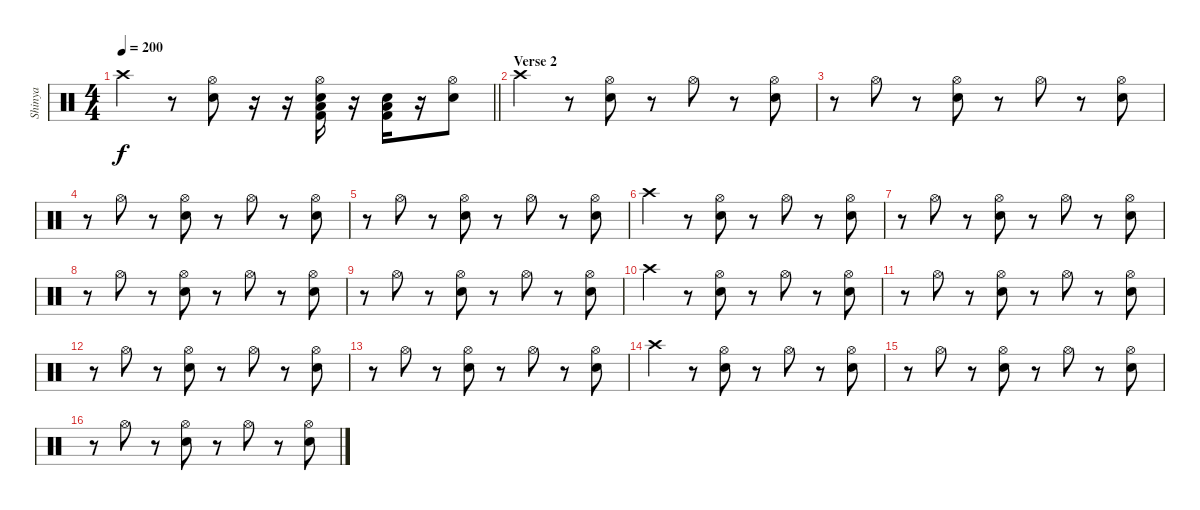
\track ("Shinya" "Shinya") {instrument percussion}
\staff {score}
\articulation defaults
\ts (4 4)
\tempo 200
\clef neutral
\barLineRight lightlight
\ks c "Crash high (hit)".4{dy f}
r.8 ("Hi-Hat (open)" "Electric Snare (hit)").8 r.16 r.16 ("Hi-Hat (open)" "Kick (hit) 2" "Electric Snare (hit)" "Low Tom (hit)").16 r.16 ("Kick (hit) 2" "Electric Snare (hit)" "Low Tom (hit)").16 r.16 ("Hi-Hat (open)" "Electric Snare (hit)").8 |
\section ("" "Verse 2")
"Crash high (hit)".4 r.8 ("Hi-Hat (open)" "Electric Snare (hit)").8 r.8 "Hi-Hat (open)".8 r.8 ("Hi-Hat (open)" "Electric Snare (hit)").8 |
r.8 "Hi-Hat (open)".8 r.8 ("Hi-Hat (open)" "Electric Snare (hit)").8 r.8 "Hi-Hat (open)".8 r.8 ("Hi-Hat (open)" "Electric Snare (hit)").8 |
r.8 "Hi-Hat (open)".8 r.8 ("Hi-Hat (open)" "Electric Snare (hit)").8 r.8 "Hi-Hat (open)".8 r.8 ("Hi-Hat (open)" "Electric Snare (hit)").8 |
r.8 "Hi-Hat (open)".8 r.8 ("Hi-Hat (open)" "Electric Snare (hit)").8 r.8 "Hi-Hat (open)".8 r.8 ("Hi-Hat (open)" "Electric Snare (hit)").8 |
"Crash high (hit)".4 r.8 ("Hi-Hat (open)" "Electric Snare (hit)").8 r.8 "Hi-Hat (open)".8 r.8 ("Hi-Hat (open)" "Electric Snare (hit)").8 |
r.8 "Hi-Hat (open)".8 r.8 ("Hi-Hat (open)" "Electric Snare (hit)").8 r.8 "Hi-Hat (open)".8 r.8 ("Hi-Hat (open)" "Electric Snare (hit)").8 |
r.8 "Hi-Hat (open)".8 r.8 ("Hi-Hat (open)" "Electric Snare (hit)").8 r.8 "Hi-Hat (open)".8 r.8 ("Hi-Hat (open)" "Electric Snare (hit)").8 |
r.8 "Hi-Hat (open)".8 r.8 ("Hi-Hat (open)" "Electric Snare (hit)").8 r.8 "Hi-Hat (open)".8 r.8 ("Hi-Hat (open)" "Electric Snare (hit)").8 |
"Crash high (hit)".4 r.8 ("Hi-Hat (open)" "Electric Snare (hit)").8 r.8 "Hi-Hat (open)".8 r.8 ("Hi-Hat (open)" "Electric Snare (hit)").8 |
r.8 "Hi-Hat (open)".8 r.8 ("Hi-Hat (open)" "Electric Snare (hit)").8 r.8 "Hi-Hat (open)".8 r.8 ("Hi-Hat (open)" "Electric Snare (hit)").8 |
r.8 "Hi-Hat (open)".8 r.8 ("Hi-Hat (open)" "Electric Snare (hit)").8 r.8 "Hi-Hat (open)".8 r.8 ("Hi-Hat (open)" "Electric Snare (hit)").8 |
r.8 "Hi-Hat (open)".8 r.8 ("Hi-Hat (open)" "Electric Snare (hit)").8 r.8 "Hi-Hat (open)".8 r.8 ("Hi-Hat (open)" "Electric Snare (hit)").8 |
"Crash high (hit)".4 r.8 ("Hi-Hat (open)" "Electric Snare (hit)").8 r.8 "Hi-Hat (open)".8 r.8 ("Hi-Hat (open)" "Electric Snare (hit)").8 |
r.8 "Hi-Hat (open)".8 r.8 ("Hi-Hat (open)" "Electric Snare (hit)").8 r.8 "Hi-Hat (open)".8 r.8 ("Hi-Hat (open)" "Electric Snare (hit)").8 |
r.8 "Hi-Hat (open)".8 r.8 ("Hi-Hat (open)" "Electric Snare (hit)").8 r.8 "Hi-Hat (open)".8 r.8 ("Hi-Hat (open)" "Electric Snare (hit)").8
